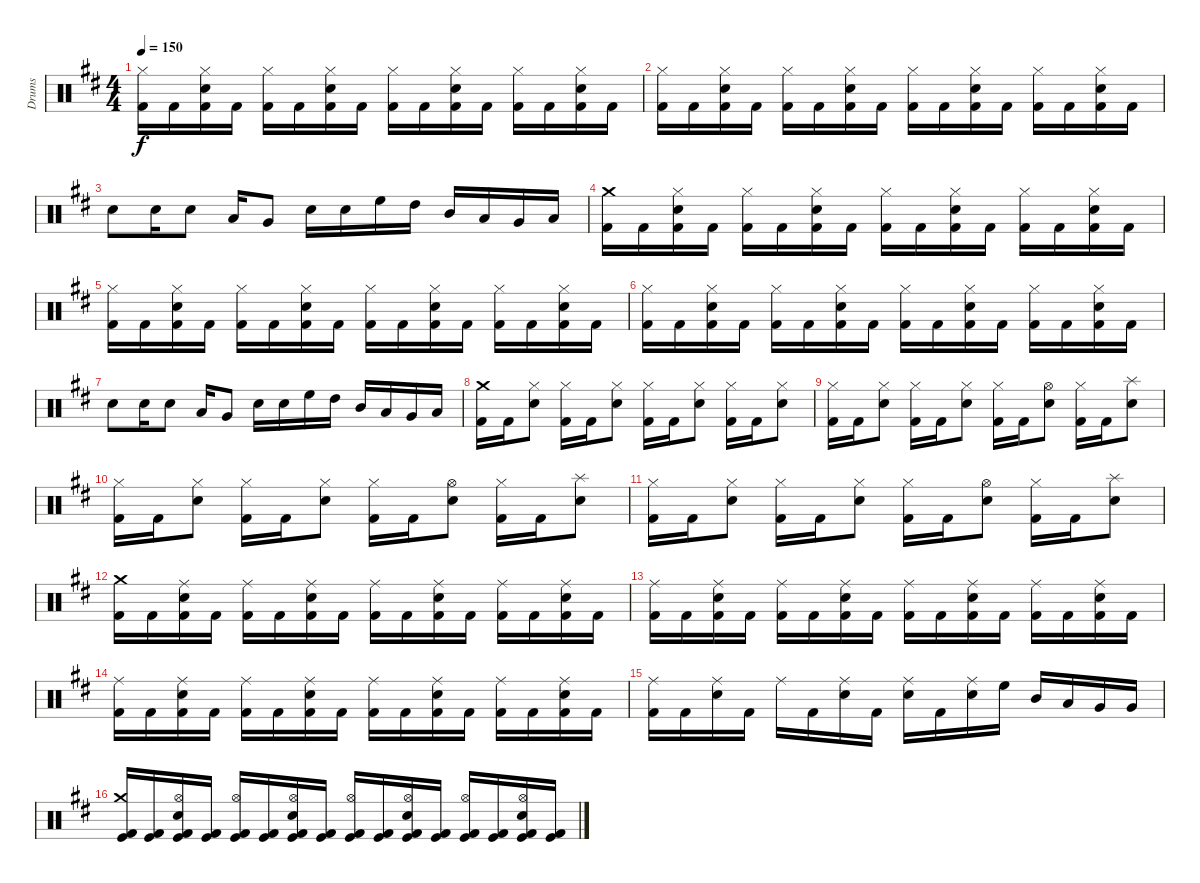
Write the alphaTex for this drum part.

\track ("Drums" "Drums") {instrument percussion}
\staff {score}
\articulation defaults
\ts (4 4)
\tempo 150
\clef neutral
\ks d
("Hi-Hat (closed)" "Kick (hit) 2").16{dy f} "Kick (hit) 2".16 ("Hi-Hat (closed)" "Snare (hit) 2" "Kick (hit) 2").16 "Kick (hit) 2".16 ("Hi-Hat (closed)" "Kick (hit) 2").16 "Kick (hit) 2".16 ("Hi-Hat (closed)" "Snare (hit) 2" "Kick (hit) 2").16 "Kick (hit) 2".16 ("Hi-Hat (closed)" "Kick (hit) 2").16 "Kick (hit) 2".16 ("Hi-Hat (closed)" "Snare (hit) 2" "Kick (hit) 2").16 "Kick (hit) 2".16 ("Hi-Hat (closed)" "Kick (hit) 2").16 "Kick (hit) 2".16 ("Hi-Hat (closed)" "Snare (hit) 2" "Kick (hit) 2").16 "Kick (hit) 2".16 |
("Hi-Hat (closed)" "Kick (hit) 2").16 "Kick (hit) 2".16 ("Hi-Hat (closed)" "Snare (hit) 2" "Kick (hit) 2").16 "Kick (hit) 2".16 ("Hi-Hat (closed)" "Kick (hit) 2").16 "Kick (hit) 2".16 ("Hi-Hat (closed)" "Snare (hit) 2" "Kick (hit) 2").16 "Kick (hit) 2".16 ("Hi-Hat (closed)" "Kick (hit) 2").16 "Kick (hit) 2".16 ("Hi-Hat (closed)" "Snare (hit) 2" "Kick (hit) 2").16 "Kick (hit) 2".16 ("Hi-Hat (closed)" "Kick (hit) 2").16 "Kick (hit) 2".16 ("Hi-Hat (closed)" "Snare (hit) 2" "Kick (hit) 2").16 "Kick (hit) 2".16 |
"Snare (hit) 2".8 "Snare (hit) 2".16 "Snare (hit) 2".8 "Low Tom (hit)".16 "Very Low Tom (hit)".8 "Snare (hit) 2".16 "Snare (hit) 2".16 "High Floor Tom (hit)".16 "High Tom (hit)".16 "Mid Tom (hit)".16 "Low Tom (hit)".16 "Very Low Tom (hit)".16 "Low Floor Tom (hit)".16 |
("Crash medium (hit)" "Kick (hit) 2").16 "Kick (hit) 2".16 ("Hi-Hat (closed)" "Snare (hit) 2" "Kick (hit) 2").16 "Kick (hit) 2".16 ("Hi-Hat (closed)" "Kick (hit) 2").16 "Kick (hit) 2".16 ("Hi-Hat (closed)" "Snare (hit) 2" "Kick (hit) 2").16 "Kick (hit) 2".16 ("Hi-Hat (closed)" "Kick (hit) 2").16 "Kick (hit) 2".16 ("Hi-Hat (closed)" "Snare (hit) 2" "Kick (hit) 2").16 "Kick (hit) 2".16 ("Hi-Hat (closed)" "Kick (hit) 2").16 "Kick (hit) 2".16 ("Hi-Hat (closed)" "Snare (hit) 2" "Kick (hit) 2").16 "Kick (hit) 2".16 |
("Hi-Hat (closed)" "Kick (hit) 2").16 "Kick (hit) 2".16 ("Hi-Hat (closed)" "Snare (hit) 2" "Kick (hit) 2").16 "Kick (hit) 2".16 ("Hi-Hat (closed)" "Kick (hit) 2").16 "Kick (hit) 2".16 ("Hi-Hat (closed)" "Snare (hit) 2" "Kick (hit) 2").16 "Kick (hit) 2".16 ("Hi-Hat (closed)" "Kick (hit) 2").16 "Kick (hit) 2".16 ("Hi-Hat (closed)" "Snare (hit) 2" "Kick (hit) 2").16 "Kick (hit) 2".16 ("Hi-Hat (closed)" "Kick (hit) 2").16 "Kick (hit) 2".16 ("Hi-Hat (closed)" "Snare (hit) 2" "Kick (hit) 2").16 "Kick (hit) 2".16 |
("Hi-Hat (closed)" "Kick (hit) 2").16 "Kick (hit) 2".16 ("Hi-Hat (closed)" "Snare (hit) 2" "Kick (hit) 2").16 "Kick (hit) 2".16 ("Hi-Hat (closed)" "Kick (hit) 2").16 "Kick (hit) 2".16 ("Hi-Hat (closed)" "Snare (hit) 2" "Kick (hit) 2").16 "Kick (hit) 2".16 ("Hi-Hat (closed)" "Kick (hit) 2").16 "Kick (hit) 2".16 ("Hi-Hat (closed)" "Snare (hit) 2" "Kick (hit) 2").16 "Kick (hit) 2".16 ("Hi-Hat (closed)" "Kick (hit) 2").16 "Kick (hit) 2".16 ("Hi-Hat (closed)" "Snare (hit) 2" "Kick (hit) 2").16 "Kick (hit) 2".16 |
"Snare (hit) 2".8 "Snare (hit) 2".16 "Snare (hit) 2".8 "Low Tom (hit)".16 "Very Low Tom (hit)".8 "Snare (hit) 2".16 "Snare (hit) 2".16 "High Floor Tom (hit)".16 "High Tom (hit)".16 "Mid Tom (hit)".16 "Low Tom (hit)".16 "Very Low Tom (hit)".16 "Low Floor Tom (hit)".16 |
("Crash medium (hit)" "Kick (hit) 2").16 "Kick (hit) 2".16 ("Hi-Hat (closed)" "Snare (hit) 2").8 ("Hi-Hat (closed)" "Kick (hit) 2").16 "Kick (hit) 2".16 ("Hi-Hat (closed)" "Snare (hit) 2").8 ("Hi-Hat (closed)" "Kick (hit) 2").16 "Kick (hit) 2".16 ("Hi-Hat (closed)" "Snare (hit) 2").8 ("Hi-Hat (closed)" "Kick (hit) 2").16 "Kick (hit) 2".16 ("Hi-Hat (closed)" "Snare (hit) 2").8 |
("Hi-Hat (closed)" "Kick (hit) 2").16 "Kick (hit) 2".16 ("Hi-Hat (closed)" "Snare (hit) 2").8 ("Hi-Hat (closed)" "Kick (hit) 2").16 "Kick (hit) 2".16 ("Hi-Hat (closed)" "Snare (hit) 2").8 ("Hi-Hat (closed)" "Kick (hit) 2").16 "Kick (hit) 2".16 ("Hi-Hat (open)" "Snare (hit) 2").8 ("Hi-Hat (closed)" "Kick (hit) 2").16 "Kick (hit) 2".16 ("Splash (hit)" "Snare (hit) 2").8 |
("Hi-Hat (closed)" "Kick (hit) 2").16 "Kick (hit) 2".16 ("Hi-Hat (closed)" "Snare (hit) 2").8 ("Hi-Hat (closed)" "Kick (hit) 2").16 "Kick (hit) 2".16 ("Hi-Hat (closed)" "Snare (hit) 2").8 ("Hi-Hat (closed)" "Kick (hit) 2").16 "Kick (hit) 2".16 ("Hi-Hat (open)" "Snare (hit) 2").8 ("Hi-Hat (closed)" "Kick (hit) 2").16 "Kick (hit) 2".16 ("Splash (hit)" "Snare (hit) 2").8 |
("Hi-Hat (closed)" "Kick (hit) 2").16 "Kick (hit) 2".16 ("Hi-Hat (closed)" "Snare (hit) 2").8 ("Hi-Hat (closed)" "Kick (hit) 2").16 "Kick (hit) 2".16 ("Hi-Hat (closed)" "Snare (hit) 2").8 ("Hi-Hat (closed)" "Kick (hit) 2").16 "Kick (hit) 2".16 ("Hi-Hat (open)" "Snare (hit) 2").8 ("Hi-Hat (closed)" "Kick (hit) 2").16 "Kick (hit) 2".16 ("Splash (hit)" "Snare (hit) 2").8 |
("Crash medium (hit)" "Kick (hit) 2").16 "Kick (hit) 2".16 ("Ride (middle)" "Snare (hit) 2" "Kick (hit) 2").16 "Kick (hit) 2".16 ("Ride (middle)" "Kick (hit) 2").16 "Kick (hit) 2".16 ("Ride (middle)" "Snare (hit) 2" "Kick (hit) 2").16 "Kick (hit) 2".16 ("Ride (middle)" "Kick (hit) 2").16 "Kick (hit) 2".16 ("Ride (middle)" "Snare (hit) 2" "Kick (hit) 2").16 "Kick (hit) 2".16 ("Ride (middle)" "Kick (hit) 2").16 "Kick (hit) 2".16 ("Ride (middle)" "Snare (hit) 2" "Kick (hit) 2").16 "Kick (hit) 2".16 |
("Ride (middle)" "Kick (hit) 2").16 "Kick (hit) 2".16 ("Ride (middle)" "Snare (hit) 2" "Kick (hit) 2").16 "Kick (hit) 2".16 ("Ride (middle)" "Kick (hit) 2").16 "Kick (hit) 2".16 ("Ride (middle)" "Snare (hit) 2" "Kick (hit) 2").16 "Kick (hit) 2".16 ("Ride (middle)" "Kick (hit) 2").16 "Kick (hit) 2".16 ("Ride (middle)" "Snare (hit) 2" "Kick (hit) 2").16 "Kick (hit) 2".16 ("Ride (middle)" "Kick (hit) 2").16 "Kick (hit) 2".16 ("Ride (middle)" "Snare (hit) 2" "Kick (hit) 2").16 "Kick (hit) 2".16 |
("Ride (middle)" "Kick (hit) 2").16 "Kick (hit) 2".16 ("Ride (middle)" "Snare (hit) 2" "Kick (hit) 2").16 "Kick (hit) 2".16 ("Ride (middle)" "Kick (hit) 2").16 "Kick (hit) 2".16 ("Ride (middle)" "Snare (hit) 2" "Kick (hit) 2").16 "Kick (hit) 2".16 ("Ride (middle)" "Kick (hit) 2").16 "Kick (hit) 2".16 ("Ride (middle)" "Snare (hit) 2" "Kick (hit) 2").16 "Kick (hit) 2".16 ("Ride (middle)" "Kick (hit) 2").16 "Kick (hit) 2".16 ("Ride (middle)" "Snare (hit) 2" "Kick (hit) 2").16 "Kick (hit) 2".16 |
("Ride (middle)" "Kick (hit) 2").16 "Kick (hit) 2".16 ("Ride (middle)" "Snare (hit) 2").16 "Kick (hit) 2".16 "Ride (middle)".16 "Kick (hit) 2".16 ("Ride (middle)" "Snare (hit) 2").16 "Kick (hit) 2".16 ("Ride (middle)" "Snare (hit) 2").16 "Kick (hit) 2".16 ("Ride (middle)" "Snare (hit) 2").16 "High Floor Tom (hit)".16 "Mid Tom (hit)".16 "Low Tom (hit)".16 "Very Low Tom (hit)".16 "Very Low Tom (hit)".16 |
("Crash medium (hit)" "Kick (hit) 2" "Kick (hit)").16 ("Kick (hit) 2" "Kick (hit)").16 ("Hi-Hat (open)" "Snare (hit) 2" "Kick (hit) 2" "Kick (hit)").16 ("Kick (hit) 2" "Kick (hit)").16 ("Hi-Hat (open)" "Kick (hit) 2" "Kick (hit)").16 ("Kick (hit) 2" "Kick (hit)").16 ("Hi-Hat (open)" "Snare (hit) 2" "Kick (hit) 2" "Kick (hit)").16 ("Kick (hit) 2" "Kick (hit)").16 ("Hi-Hat (open)" "Kick (hit) 2" "Kick (hit)").16 ("Kick (hit) 2" "Kick (hit)").16 ("Hi-Hat (open)" "Snare (hit) 2" "Kick (hit) 2" "Kick (hit)").16 ("Kick (hit) 2" "Kick (hit)").16 ("Hi-Hat (open)" "Kick (hit) 2" "Kick (hit)").16 ("Kick (hit) 2" "Kick (hit)").16 ("Hi-Hat (open)" "Snare (hit) 2" "Kick (hit) 2" "Kick (hit)").16 ("Kick (hit) 2" "Kick (hit)").16
